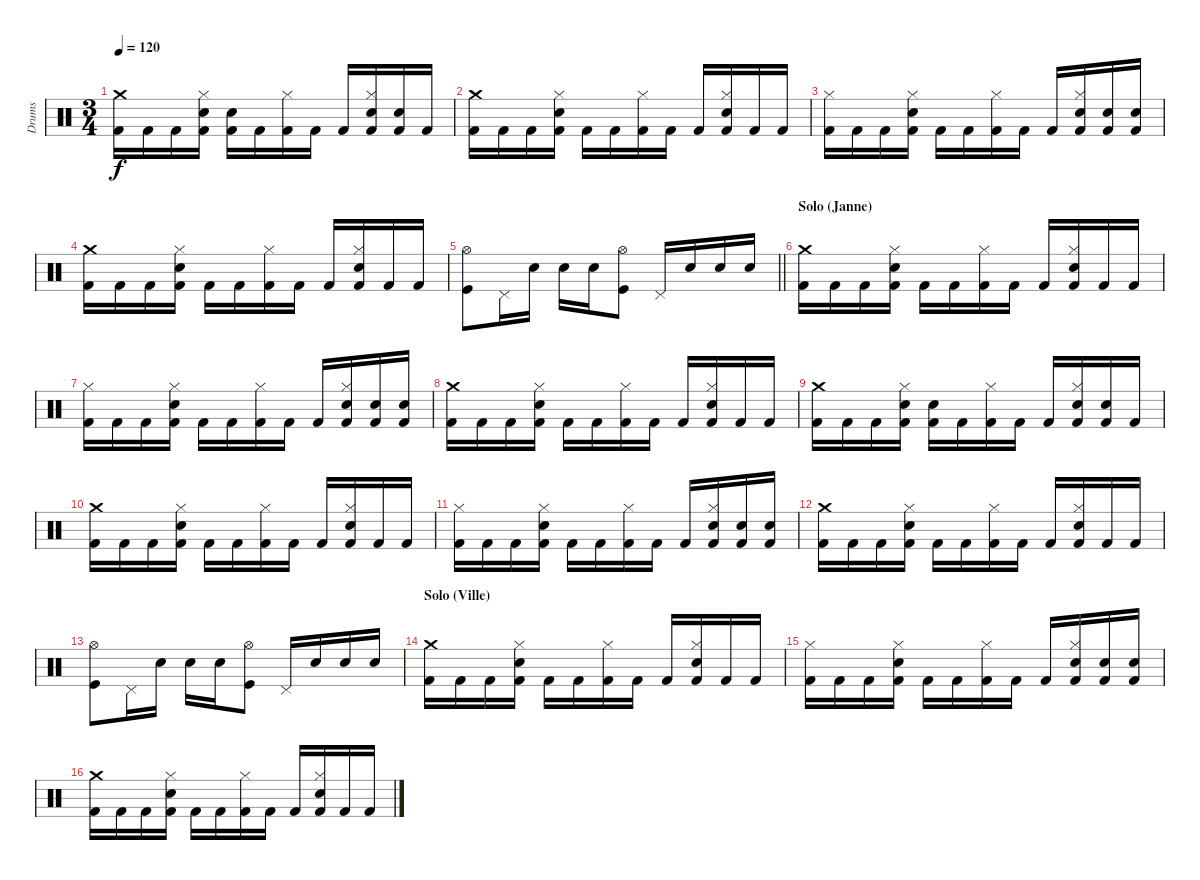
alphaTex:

\track ("Drums" "Drums") {instrument percussion}
\staff {score}
\articulation defaults
\ts (3 4)
\tempo 120
\clef neutral
\ks c
("Crash medium (hit)" "Kick (hit) 2").16{dy f} "Kick (hit) 2".16 "Kick (hit) 2".16 ("Hi-Hat (closed)" "Electric Snare (hit)" "Kick (hit) 2").16 ("Electric Snare (hit)" "Kick (hit) 2").16 "Kick (hit) 2".16 ("Hi-Hat (closed)" "Kick (hit) 2").16 "Kick (hit) 2".16 "Kick (hit) 2".16 ("Hi-Hat (closed)" "Electric Snare (hit)" "Kick (hit) 2").16 ("Electric Snare (hit)" "Kick (hit) 2").16 "Kick (hit) 2".16 |
("Crash medium (hit)" "Kick (hit) 2").16 "Kick (hit) 2".16 "Kick (hit) 2".16 ("Hi-Hat (closed)" "Electric Snare (hit)" "Kick (hit) 2").16 "Kick (hit) 2".16 "Kick (hit) 2".16 ("Hi-Hat (closed)" "Kick (hit) 2").16 "Kick (hit) 2".16 "Kick (hit) 2".16 ("Hi-Hat (closed)" "Electric Snare (hit)" "Kick (hit) 2").16 "Kick (hit) 2".16 "Kick (hit) 2".16 |
("Hi-Hat (closed)" "Kick (hit) 2").16 "Kick (hit) 2".16 "Kick (hit) 2".16 ("Hi-Hat (closed)" "Electric Snare (hit)" "Kick (hit) 2").16 "Kick (hit) 2".16 "Kick (hit) 2".16 ("Hi-Hat (closed)" "Kick (hit) 2").16 "Kick (hit) 2".16 "Kick (hit) 2".16 ("Hi-Hat (closed)" "Electric Snare (hit)" "Kick (hit) 2").16 ("Electric Snare (hit)" "Kick (hit) 2").16 ("Electric Snare (hit)" "Kick (hit) 2").16 |
("Crash medium (hit)" "Kick (hit) 2").16 "Kick (hit) 2".16 "Kick (hit) 2".16 ("Hi-Hat (closed)" "Electric Snare (hit)" "Kick (hit) 2").16 "Kick (hit) 2".16 "Kick (hit) 2".16 ("Hi-Hat (closed)" "Kick (hit) 2").16 "Kick (hit) 2".16 "Kick (hit) 2".16 ("Hi-Hat (closed)" "Electric Snare (hit)" "Kick (hit) 2").16 "Kick (hit) 2".16 "Kick (hit) 2".16 |
\barLineRight lightlight
("Hi-Hat (open)" "Kick (hit)").8 "Pedal Hi-Hat (hit)".16 "Electric Snare (hit)".16 "Electric Snare (hit)".16 "Electric Snare (hit)".16 ("Hi-Hat (open)" "Kick (hit)").8 "Pedal Hi-Hat (hit)".16 "Electric Snare (hit)".16 "Electric Snare (hit)".16 "Electric Snare (hit)".16 |
\section ("" "Solo (Janne)")
("Crash medium (hit)" "Kick (hit) 2").16 "Kick (hit) 2".16 "Kick (hit) 2".16 ("Hi-Hat (closed)" "Electric Snare (hit)" "Kick (hit) 2").16 "Kick (hit) 2".16 "Kick (hit) 2".16 ("Hi-Hat (closed)" "Kick (hit) 2").16 "Kick (hit) 2".16 "Kick (hit) 2".16 ("Hi-Hat (closed)" "Electric Snare (hit)" "Kick (hit) 2").16 "Kick (hit) 2".16 "Kick (hit) 2".16 |
("Hi-Hat (closed)" "Kick (hit) 2").16 "Kick (hit) 2".16 "Kick (hit) 2".16 ("Hi-Hat (closed)" "Electric Snare (hit)" "Kick (hit) 2").16 "Kick (hit) 2".16 "Kick (hit) 2".16 ("Hi-Hat (closed)" "Kick (hit) 2").16 "Kick (hit) 2".16 "Kick (hit) 2".16 ("Hi-Hat (closed)" "Electric Snare (hit)" "Kick (hit) 2").16 ("Electric Snare (hit)" "Kick (hit) 2").16 ("Electric Snare (hit)" "Kick (hit) 2").16 |
("Crash medium (hit)" "Kick (hit) 2").16 "Kick (hit) 2".16 "Kick (hit) 2".16 ("Hi-Hat (closed)" "Electric Snare (hit)" "Kick (hit) 2").16 "Kick (hit) 2".16 "Kick (hit) 2".16 ("Hi-Hat (closed)" "Kick (hit) 2").16 "Kick (hit) 2".16 "Kick (hit) 2".16 ("Hi-Hat (closed)" "Electric Snare (hit)" "Kick (hit) 2").16 "Kick (hit) 2".16 "Kick (hit) 2".16 |
("Crash medium (hit)" "Kick (hit) 2").16 "Kick (hit) 2".16 "Kick (hit) 2".16 ("Hi-Hat (closed)" "Electric Snare (hit)" "Kick (hit) 2").16 ("Electric Snare (hit)" "Kick (hit) 2").16 "Kick (hit) 2".16 ("Hi-Hat (closed)" "Kick (hit) 2").16 "Kick (hit) 2".16 "Kick (hit) 2".16 ("Hi-Hat (closed)" "Electric Snare (hit)" "Kick (hit) 2").16 ("Electric Snare (hit)" "Kick (hit) 2").16 "Kick (hit) 2".16 |
("Crash medium (hit)" "Kick (hit) 2").16 "Kick (hit) 2".16 "Kick (hit) 2".16 ("Hi-Hat (closed)" "Electric Snare (hit)" "Kick (hit) 2").16 "Kick (hit) 2".16 "Kick (hit) 2".16 ("Hi-Hat (closed)" "Kick (hit) 2").16 "Kick (hit) 2".16 "Kick (hit) 2".16 ("Hi-Hat (closed)" "Electric Snare (hit)" "Kick (hit) 2").16 "Kick (hit) 2".16 "Kick (hit) 2".16 |
("Hi-Hat (closed)" "Kick (hit) 2").16 "Kick (hit) 2".16 "Kick (hit) 2".16 ("Hi-Hat (closed)" "Electric Snare (hit)" "Kick (hit) 2").16 "Kick (hit) 2".16 "Kick (hit) 2".16 ("Hi-Hat (closed)" "Kick (hit) 2").16 "Kick (hit) 2".16 "Kick (hit) 2".16 ("Hi-Hat (closed)" "Electric Snare (hit)" "Kick (hit) 2").16 ("Electric Snare (hit)" "Kick (hit) 2").16 ("Electric Snare (hit)" "Kick (hit) 2").16 |
("Crash medium (hit)" "Kick (hit) 2").16 "Kick (hit) 2".16 "Kick (hit) 2".16 ("Hi-Hat (closed)" "Electric Snare (hit)" "Kick (hit) 2").16 "Kick (hit) 2".16 "Kick (hit) 2".16 ("Hi-Hat (closed)" "Kick (hit) 2").16 "Kick (hit) 2".16 "Kick (hit) 2".16 ("Hi-Hat (closed)" "Electric Snare (hit)" "Kick (hit) 2").16 "Kick (hit) 2".16 "Kick (hit) 2".16 |
("Hi-Hat (open)" "Kick (hit)").8 "Pedal Hi-Hat (hit)".16 "Electric Snare (hit)".16 "Electric Snare (hit)".16 "Electric Snare (hit)".16 ("Hi-Hat (open)" "Kick (hit)").8 "Pedal Hi-Hat (hit)".16 "Electric Snare (hit)".16 "Electric Snare (hit)".16 "Electric Snare (hit)".16 |
\section ("" "Solo (Ville)")
("Crash medium (hit)" "Kick (hit) 2").16 "Kick (hit) 2".16 "Kick (hit) 2".16 ("Hi-Hat (closed)" "Electric Snare (hit)" "Kick (hit) 2").16 "Kick (hit) 2".16 "Kick (hit) 2".16 ("Hi-Hat (closed)" "Kick (hit) 2").16 "Kick (hit) 2".16 "Kick (hit) 2".16 ("Hi-Hat (closed)" "Electric Snare (hit)" "Kick (hit) 2").16 "Kick (hit) 2".16 "Kick (hit) 2".16 |
("Hi-Hat (closed)" "Kick (hit) 2").16 "Kick (hit) 2".16 "Kick (hit) 2".16 ("Hi-Hat (closed)" "Electric Snare (hit)" "Kick (hit) 2").16 "Kick (hit) 2".16 "Kick (hit) 2".16 ("Hi-Hat (closed)" "Kick (hit) 2").16 "Kick (hit) 2".16 "Kick (hit) 2".16 ("Hi-Hat (closed)" "Electric Snare (hit)" "Kick (hit) 2").16 ("Electric Snare (hit)" "Kick (hit) 2").16 ("Electric Snare (hit)" "Kick (hit) 2").16 |
("Crash medium (hit)" "Kick (hit) 2").16 "Kick (hit) 2".16 "Kick (hit) 2".16 ("Hi-Hat (closed)" "Electric Snare (hit)" "Kick (hit) 2").16 "Kick (hit) 2".16 "Kick (hit) 2".16 ("Hi-Hat (closed)" "Kick (hit) 2").16 "Kick (hit) 2".16 "Kick (hit) 2".16 ("Hi-Hat (closed)" "Electric Snare (hit)" "Kick (hit) 2").16 "Kick (hit) 2".16 "Kick (hit) 2".16
